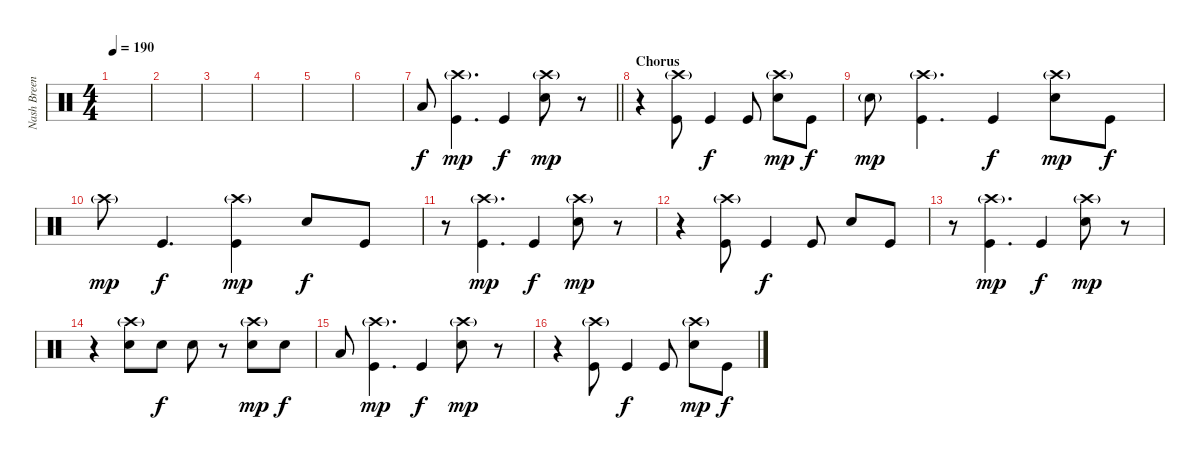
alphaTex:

\track ("Nash Breen (Percussion)" "Nash Breen") {instrument percussion}
\staff {score}
\articulation defaults
\ts (4 4)
\tempo 190
\clef neutral
\ks c
|
|
|
|
|
|
\barLineRight lightlight "Low Tom (hit)".8{dy f}
("Kick (hit)" "Crash high (hit)"{g}).4{d dy mp} "Kick (hit)".4{dy f} ("Electric Snare (hit)" "Crash high (hit)"{g}).8{dy mp} r.8 |
\section ("" "Chorus")
r.4 ("Kick (hit)" "Crash high (hit)"{g}).8 "Kick (hit)".4{dy f} "Kick (hit)".8 ("Electric Snare (hit)" "Crash high (hit)"{g}).8{dy mp} "Kick (hit)".8{dy f} |
"Electric Snare (hit)"{g}.8{dy mp} ("Kick (hit)" "Crash high (hit)"{g}).4{d} "Kick (hit)".4{dy f} ("Electric Snare (hit)" "Crash high (hit)"{g}).8{dy mp} "Kick (hit)".8{dy f} |
"Crash high (hit)"{g}.8{dy mp} "Kick (hit)".4{d dy f} ("Kick (hit)" "Crash high (hit)"{g}).4{dy mp} "Electric Snare (hit)".8{dy f} "Kick (hit)".8 |
r.8 ("Kick (hit)" "Crash high (hit)"{g}).4{d dy mp} "Kick (hit)".4{dy f} ("Electric Snare (hit)" "Crash high (hit)"{g}).8{dy mp} r.8 |
r.4 ("Kick (hit)" "Crash high (hit)"{g}).8 "Kick (hit)".4{dy f} "Kick (hit)".8 "Electric Snare (hit)".8 "Kick (hit)".8 |
r.8 ("Kick (hit)" "Crash high (hit)"{g}).4{d dy mp} "Kick (hit)".4{dy f} ("Electric Snare (hit)" "Crash high (hit)"{g}).8{dy mp} r.8 |
r.4 ("Electric Snare (hit)" "Crash high (hit)"{g}).8 "Electric Snare (hit)".8{dy f} "Electric Snare (hit)".8 r.8 ("Electric Snare (hit)" "Crash high (hit)"{g}).8{dy mp} "Electric Snare (hit)".8{dy f} |
"Low Tom (hit)".8 ("Kick (hit)" "Crash high (hit)"{g}).4{d dy mp} "Kick (hit)".4{dy f} ("Electric Snare (hit)" "Crash high (hit)"{g}).8{dy mp} r.8 |
r.4 ("Kick (hit)" "Crash high (hit)"{g}).8 "Kick (hit)".4{dy f} "Kick (hit)".8 ("Electric Snare (hit)" "Crash high (hit)"{g}).8{dy mp} "Kick (hit)".8{dy f}
